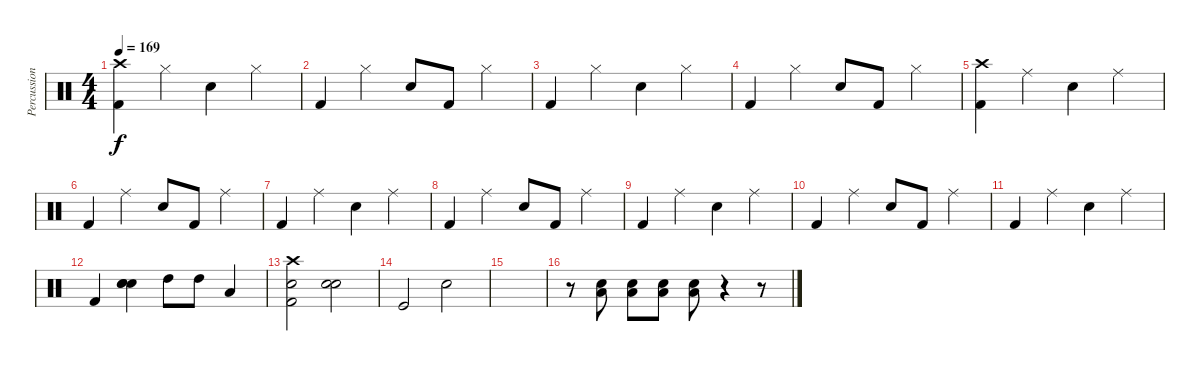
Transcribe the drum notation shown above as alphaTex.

\track ("Percussion" "Percussion") {instrument percussion}
\staff {score}
\articulation defaults
\ts (4 4)
\tempo 169
\clef neutral
\ks c
("Crash high (hit)" "Kick (hit) 2").4{dy f} "Hi-Hat (closed)".4 "Snare (hit) 2".4 "Hi-Hat (closed)".4 |
"Kick (hit) 2".4 "Hi-Hat (closed)".4 "Snare (hit) 2".8 "Kick (hit) 2".8 "Hi-Hat (closed)".4 |
"Kick (hit) 2".4 "Hi-Hat (closed)".4 "Snare (hit) 2".4 "Hi-Hat (closed)".4 |
"Kick (hit) 2".4 "Hi-Hat (closed)".4 "Snare (hit) 2".8 "Kick (hit) 2".8 "Hi-Hat (closed)".4 |
("Crash high (hit)" "Kick (hit) 2").4 "Ride (middle)".4 "Snare (hit) 2".4 "Ride (middle)".4 |
"Kick (hit) 2".4 "Ride (middle)".4 "Snare (hit) 2".8 "Kick (hit) 2".8 "Ride (middle)".4 |
"Kick (hit) 2".4 "Ride (middle)".4 "Snare (hit) 2".4 "Ride (middle)".4 |
"Kick (hit) 2".4 "Ride (middle)".4 "Snare (hit) 2".8 "Kick (hit) 2".8 "Ride (middle)".4 |
"Kick (hit) 2".4 "Ride (middle)".4 "Snare (hit) 2".4 "Ride (middle)".4 |
"Kick (hit) 2".4 "Ride (middle)".4 "Snare (hit) 2".8 "Kick (hit) 2".8 "Ride (middle)".4 |
"Kick (hit) 2".4 "Ride (middle)".4 "Snare (hit) 2".4 "Ride (middle)".4 |
"Kick (hit) 2".4 ("Snare (hit) 2" "Snare (hit) 2" "Snare (hit) 2").4 "High Tom (hit)".8 "High Tom (hit)".8 "Low Tom (hit)".4 |
("Snare (hit) 2" "Crash high (hit)" "Kick (hit) 2").2 ("Snare (hit) 2" "Snare (hit) 2").2 |
"Kick (hit)".2 "Snare (hit) 2".2 |
|
r.8 ("Snare (hit) 2" "Low Floor Tom (hit)").8 ("Snare (hit) 2" "Low Floor Tom (hit)").8 ("Snare (hit) 2" "Low Floor Tom (hit)").8 ("Snare (hit) 2" "Low Floor Tom (hit)").8 r.4 r.8
